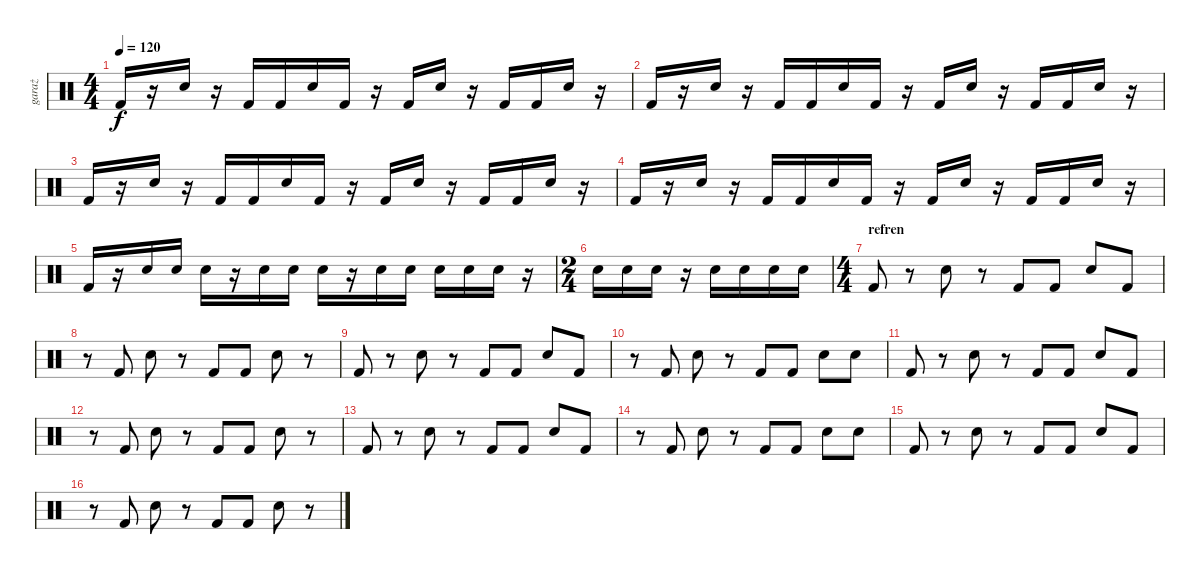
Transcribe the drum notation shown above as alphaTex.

\track ("garaż" "garaż") {instrument percussion}
\staff {score}
\articulation defaults
\ts (4 4)
\tempo 120
\clef neutral
\ks c "Kick (hit) 2".16{dy f}
r.16 "Snare (hit) 2".16 r.16 "Kick (hit) 2".16 "Kick (hit) 2".16 "Snare (hit) 2".16 "Kick (hit) 2".16 r.16 "Kick (hit) 2".16 "Snare (hit) 2".16 r.16 "Kick (hit) 2".16 "Kick (hit) 2".16 "Snare (hit) 2".16 r.16 |
"Kick (hit) 2".16 r.16 "Snare (hit) 2".16 r.16 "Kick (hit) 2".16 "Kick (hit) 2".16 "Snare (hit) 2".16 "Kick (hit) 2".16 r.16 "Kick (hit) 2".16 "Snare (hit) 2".16 r.16 "Kick (hit) 2".16 "Kick (hit) 2".16 "Snare (hit) 2".16 r.16 |
"Kick (hit) 2".16 r.16 "Snare (hit) 2".16 r.16 "Kick (hit) 2".16 "Kick (hit) 2".16 "Snare (hit) 2".16 "Kick (hit) 2".16 r.16 "Kick (hit) 2".16 "Snare (hit) 2".16 r.16 "Kick (hit) 2".16 "Kick (hit) 2".16 "Snare (hit) 2".16 r.16 |
"Kick (hit) 2".16 r.16 "Snare (hit) 2".16 r.16 "Kick (hit) 2".16 "Kick (hit) 2".16 "Snare (hit) 2".16 "Kick (hit) 2".16 r.16 "Kick (hit) 2".16 "Snare (hit) 2".16 r.16 "Kick (hit) 2".16 "Kick (hit) 2".16 "Snare (hit) 2".16 r.16 |
"Kick (hit) 2".16 r.16 "Snare (hit) 2".16 "Snare (hit) 2".16 "Snare (hit) 2".16 r.16 "Snare (hit) 2".16 "Snare (hit) 2".16 "Snare (hit) 2".16 r.16 "Snare (hit) 2".16 "Snare (hit) 2".16 "Snare (hit) 2".16 "Snare (hit) 2".16 "Snare (hit) 2".16 r.16 |
\ts (2 4)
"Snare (hit) 2".16 "Snare (hit) 2".16 "Snare (hit) 2".16 r.16 "Snare (hit) 2".16 "Snare (hit) 2".16 "Snare (hit) 2".16 "Snare (hit) 2".16 |
\ts (4 4)
\section ("" "refren")
"Kick (hit) 2".8 r.8 "Snare (hit) 2".8 r.8 "Kick (hit) 2".8 "Kick (hit) 2".8 "Snare (hit) 2".8 "Kick (hit) 2".8 |
r.8 "Kick (hit) 2".8 "Snare (hit) 2".8 r.8 "Kick (hit) 2".8 "Kick (hit) 2".8 "Snare (hit) 2".8 r.8 |
"Kick (hit) 2".8 r.8 "Snare (hit) 2".8 r.8 "Kick (hit) 2".8 "Kick (hit) 2".8 "Snare (hit) 2".8 "Kick (hit) 2".8 |
r.8 "Kick (hit) 2".8 "Snare (hit) 2".8 r.8 "Kick (hit) 2".8 "Kick (hit) 2".8 "Snare (hit) 2".8 "Snare (hit) 2".8 |
"Kick (hit) 2".8 r.8 "Snare (hit) 2".8 r.8 "Kick (hit) 2".8 "Kick (hit) 2".8 "Snare (hit) 2".8 "Kick (hit) 2".8 |
r.8 "Kick (hit) 2".8 "Snare (hit) 2".8 r.8 "Kick (hit) 2".8 "Kick (hit) 2".8 "Snare (hit) 2".8 r.8 |
"Kick (hit) 2".8 r.8 "Snare (hit) 2".8 r.8 "Kick (hit) 2".8 "Kick (hit) 2".8 "Snare (hit) 2".8 "Kick (hit) 2".8 |
r.8 "Kick (hit) 2".8 "Snare (hit) 2".8 r.8 "Kick (hit) 2".8 "Kick (hit) 2".8 "Snare (hit) 2".8 "Snare (hit) 2".8 |
"Kick (hit) 2".8 r.8 "Snare (hit) 2".8 r.8 "Kick (hit) 2".8 "Kick (hit) 2".8 "Snare (hit) 2".8 "Kick (hit) 2".8 |
r.8 "Kick (hit) 2".8 "Snare (hit) 2".8 r.8 "Kick (hit) 2".8 "Kick (hit) 2".8 "Snare (hit) 2".8 r.8
